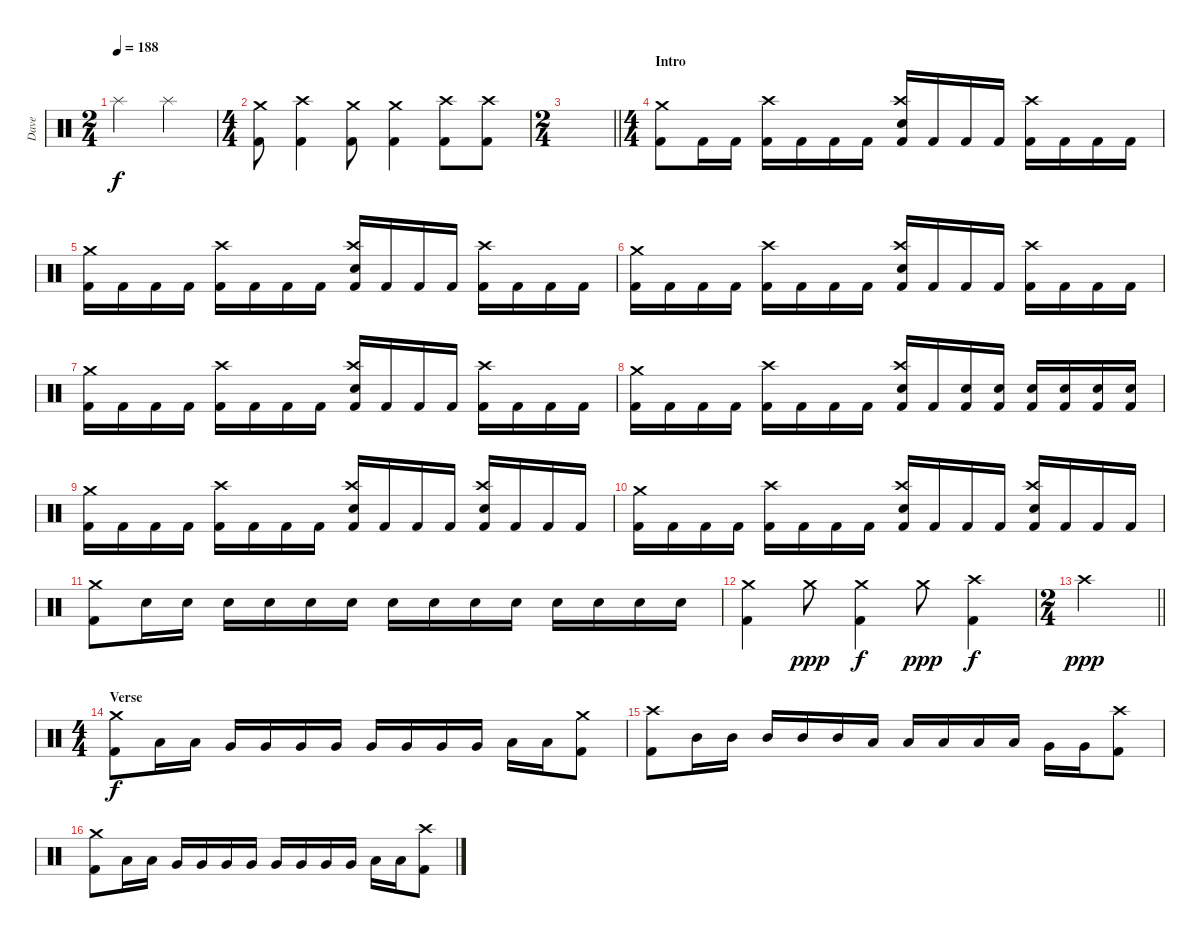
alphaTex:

\track ("Dave" "Dave") {instrument percussion}
\staff {score}
\articulation defaults
\ts (2 4)
\tempo 188
\clef neutral
\ks c "Splash (hit)".4{dy f} "Splash (hit)".4
|
\ts (4 4)
("Crash medium (hit)" "Kick (hit) 2").8 ("Crash high (hit)" "Kick (hit) 2").4 ("Crash medium (hit)" "Kick (hit) 2").8 ("Crash medium (hit)" "Kick (hit) 2").4 ("Crash high (hit)" "Kick (hit) 2").8 ("Crash high (hit)" "Kick (hit) 2").8 |
\ts (2 4)
\barLineRight lightlight
|
\ts (4 4)
\section ("" "Intro")
("Crash medium (hit)" "Kick (hit) 2").8 "Kick (hit) 2".16 "Kick (hit) 2".16 ("Crash high (hit)" "Kick (hit) 2").16 "Kick (hit) 2".16 "Kick (hit) 2".16 "Kick (hit) 2".16 ("Crash high (hit)" "Electric Snare (hit)" "Kick (hit) 2").16 "Kick (hit) 2".16 "Kick (hit) 2".16 "Kick (hit) 2".16 ("Crash high (hit)" "Kick (hit) 2").16 "Kick (hit) 2".16 "Kick (hit) 2".16 "Kick (hit) 2".16 |
("Crash medium (hit)" "Kick (hit) 2").16 "Kick (hit) 2".16 "Kick (hit) 2".16 "Kick (hit) 2".16 ("Crash high (hit)" "Kick (hit) 2").16 "Kick (hit) 2".16 "Kick (hit) 2".16 "Kick (hit) 2".16 ("Crash high (hit)" "Electric Snare (hit)" "Kick (hit) 2").16 "Kick (hit) 2".16 "Kick (hit) 2".16 "Kick (hit) 2".16 ("Crash high (hit)" "Kick (hit) 2").16 "Kick (hit) 2".16 "Kick (hit) 2".16 "Kick (hit) 2".16 |
("Crash medium (hit)" "Kick (hit) 2").16 "Kick (hit) 2".16 "Kick (hit) 2".16 "Kick (hit) 2".16 ("Crash high (hit)" "Kick (hit) 2").16 "Kick (hit) 2".16 "Kick (hit) 2".16 "Kick (hit) 2".16 ("Crash high (hit)" "Electric Snare (hit)" "Kick (hit) 2").16 "Kick (hit) 2".16 "Kick (hit) 2".16 "Kick (hit) 2".16 ("Crash high (hit)" "Kick (hit) 2").16 "Kick (hit) 2".16 "Kick (hit) 2".16 "Kick (hit) 2".16 |
("Crash medium (hit)" "Kick (hit) 2").16 "Kick (hit) 2".16 "Kick (hit) 2".16 "Kick (hit) 2".16 ("Crash high (hit)" "Kick (hit) 2").16 "Kick (hit) 2".16 "Kick (hit) 2".16 "Kick (hit) 2".16 ("Crash high (hit)" "Electric Snare (hit)" "Kick (hit) 2").16 "Kick (hit) 2".16 "Kick (hit) 2".16 "Kick (hit) 2".16 ("Crash high (hit)" "Kick (hit) 2").16 "Kick (hit) 2".16 "Kick (hit) 2".16 "Kick (hit) 2".16 |
("Crash medium (hit)" "Kick (hit) 2").16 "Kick (hit) 2".16 "Kick (hit) 2".16 "Kick (hit) 2".16 ("Crash high (hit)" "Kick (hit) 2").16 "Kick (hit) 2".16 "Kick (hit) 2".16 "Kick (hit) 2".16 ("Crash high (hit)" "Electric Snare (hit)" "Kick (hit) 2").16 "Kick (hit) 2".16 ("Electric Snare (hit)" "Kick (hit) 2").16 ("Electric Snare (hit)" "Kick (hit) 2").16 ("Electric Snare (hit)" "Kick (hit) 2").16 ("Electric Snare (hit)" "Kick (hit) 2").16 ("Electric Snare (hit)" "Kick (hit) 2").16 ("Electric Snare (hit)" "Kick (hit) 2").16 |
("Crash medium (hit)" "Kick (hit) 2").16 "Kick (hit) 2".16 "Kick (hit) 2".16 "Kick (hit) 2".16 ("Crash high (hit)" "Kick (hit) 2").16 "Kick (hit) 2".16 "Kick (hit) 2".16 "Kick (hit) 2".16 ("Crash high (hit)" "Electric Snare (hit)" "Kick (hit) 2").16 "Kick (hit) 2".16 "Kick (hit) 2".16 "Kick (hit) 2".16 ("Crash high (hit)" "Electric Snare (hit)" "Kick (hit) 2").16 "Kick (hit) 2".16 "Kick (hit) 2".16 "Kick (hit) 2".16 |
("Crash medium (hit)" "Kick (hit) 2").16 "Kick (hit) 2".16 "Kick (hit) 2".16 "Kick (hit) 2".16 ("Crash high (hit)" "Kick (hit) 2").16 "Kick (hit) 2".16 "Kick (hit) 2".16 "Kick (hit) 2".16 ("Crash high (hit)" "Electric Snare (hit)" "Kick (hit) 2").16 "Kick (hit) 2".16 "Kick (hit) 2".16 "Kick (hit) 2".16 ("Crash high (hit)" "Electric Snare (hit)" "Kick (hit) 2").16 "Kick (hit) 2".16 "Kick (hit) 2".16 "Kick (hit) 2".16 |
("Crash medium (hit)" "Kick (hit) 2").8 "Electric Snare (hit)".16 "Electric Snare (hit)".16 "Electric Snare (hit)".16 "Electric Snare (hit)".16 "Electric Snare (hit)".16 "Electric Snare (hit)".16 "Electric Snare (hit)".16 "Electric Snare (hit)".16 "Electric Snare (hit)".16 "Electric Snare (hit)".16 "Electric Snare (hit)".16 "Electric Snare (hit)".16 "Electric Snare (hit)".16 "Electric Snare (hit)".16 |
("Crash medium (hit)" "Kick (hit) 2").4 "Crash medium (hit)".8{dy ppp} ("Crash medium (hit)" "Kick (hit) 2").4{dy f} "Crash medium (hit)".8{dy ppp} ("Crash high (hit)" "Kick (hit) 2").4{dy f} |
\ts (2 4)
\barLineRight lightlight "Crash high (hit)".2{dy ppp}
|
\ts (4 4)
\section ("" "Verse")
("Crash medium (hit)" "Kick (hit) 2").8{dy f} "Low Tom (hit)".16 "Low Tom (hit)".16 "Very Low Tom (hit)".16 "Very Low Tom (hit)".16 "Very Low Tom (hit)".16 "Very Low Tom (hit)".16 "Very Low Tom (hit)".16 "Very Low Tom (hit)".16 "Very Low Tom (hit)".16 "Very Low Tom (hit)".16 "Low Floor Tom (hit)".16 "Low Floor Tom (hit)".16 ("Crash medium (hit)" "Kick (hit) 2").8 |
("Crash high (hit)" "Kick (hit) 2").8 "Mid Tom (hit)".16 "Mid Tom (hit)".16 "Mid Tom (hit)".16 "Mid Tom (hit)".16 "Mid Tom (hit)".16 "Low Tom (hit)".16 "Low Tom (hit)".16 "Low Tom (hit)".16 "Low Tom (hit)".16 "Low Tom (hit)".16 "Very Low Tom (hit)".16 "Very Low Tom (hit)".16 ("Crash high (hit)" "Kick (hit) 2").8 |
("Crash medium (hit)" "Kick (hit) 2").8 "Low Tom (hit)".16 "Low Tom (hit)".16 "Very Low Tom (hit)".16 "Very Low Tom (hit)".16 "Very Low Tom (hit)".16 "Very Low Tom (hit)".16 "Very Low Tom (hit)".16 "Very Low Tom (hit)".16 "Very Low Tom (hit)".16 "Very Low Tom (hit)".16 "Low Floor Tom (hit)".16 "Low Floor Tom (hit)".16 ("Crash high (hit)" "Kick (hit) 2").8
